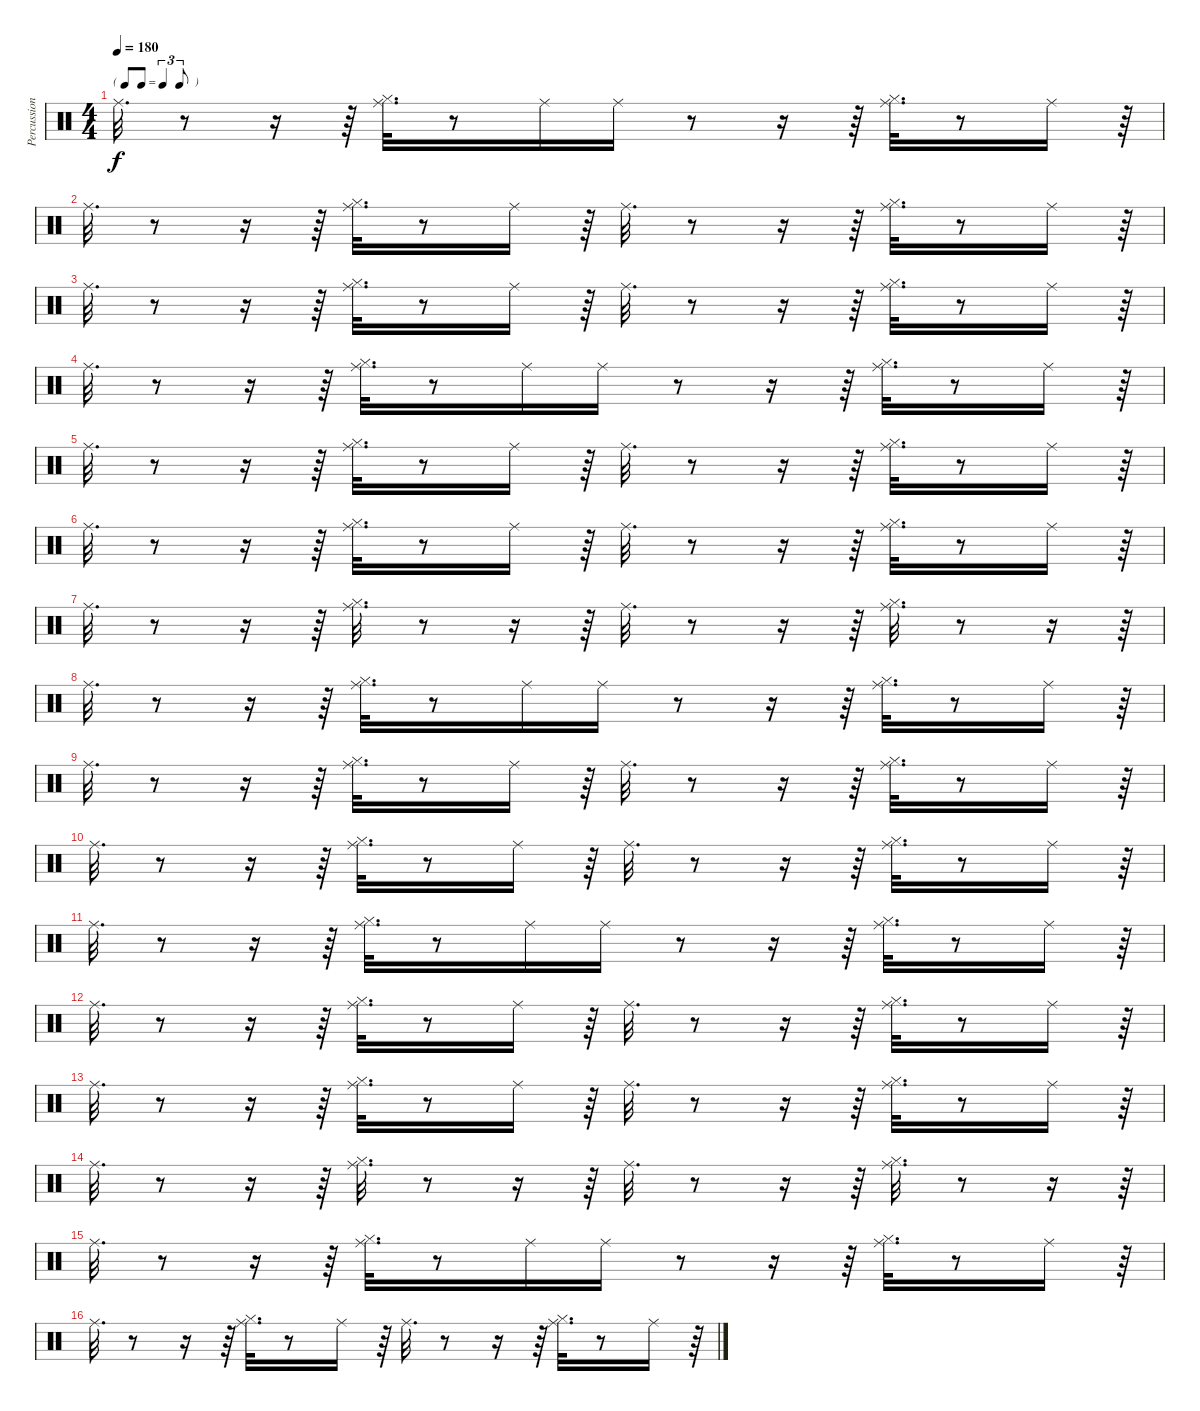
\track ("Percussions" "Percussion") {instrument percussion}
\staff {score}
\articulation defaults
\ts (4 4)
\tf triplet8th
\tempo 180
\clef neutral
\ks c "Ride (middle)".32{d dy f}
r.8 r.16 r.64 ("Hi-Hat (closed)" "Ride (middle)").32{d} r.8 "Ride (middle)".16 "Ride (middle)".16 r.8 r.16 r.64 ("Hi-Hat (closed)" "Ride (middle)").32{d} r.8 "Ride (middle)".16 r.64 |
"Ride (middle)".32{d} r.8 r.16 r.64 ("Hi-Hat (closed)" "Ride (middle)").32{d} r.8 "Ride (middle)".16 r.64 "Ride (middle)".32{d} r.8 r.16 r.64 ("Hi-Hat (closed)" "Ride (middle)").32{d} r.8 "Ride (middle)".16 r.64 |
"Ride (middle)".32{d} r.8 r.16 r.64 ("Hi-Hat (closed)" "Ride (middle)").32{d} r.8 "Ride (middle)".16 r.64 "Ride (middle)".32{d} r.8 r.16 r.64 ("Hi-Hat (closed)" "Ride (middle)").32{d} r.8 "Ride (middle)".16 r.64 |
"Ride (middle)".32{d} r.8 r.16 r.64 ("Hi-Hat (closed)" "Ride (middle)").32{d} r.8 "Ride (middle)".16 "Ride (middle)".16 r.8 r.16 r.64 ("Hi-Hat (closed)" "Ride (middle)").32{d} r.8 "Ride (middle)".16 r.64 |
"Ride (middle)".32{d} r.8 r.16 r.64 ("Hi-Hat (closed)" "Ride (middle)").32{d} r.8 "Ride (middle)".16 r.64 "Ride (middle)".32{d} r.8 r.16 r.64 ("Hi-Hat (closed)" "Ride (middle)").32{d} r.8 "Ride (middle)".16 r.64 |
"Ride (middle)".32{d} r.8 r.16 r.64 ("Hi-Hat (closed)" "Ride (middle)").32{d} r.8 "Ride (middle)".16 r.64 "Ride (middle)".32{d} r.8 r.16 r.64 ("Hi-Hat (closed)" "Ride (middle)").32{d} r.8 "Ride (middle)".16 r.64 |
"Ride (middle)".32{d} r.8 r.16 r.64 ("Hi-Hat (closed)" "Ride (middle)").32{d} r.8 r.16 r.64 "Ride (middle)".32{d} r.8 r.16 r.64 ("Hi-Hat (closed)" "Ride (middle)").32{d} r.8 r.16 r.64 |
"Ride (middle)".32{d} r.8 r.16 r.64 ("Hi-Hat (closed)" "Ride (middle)").32{d} r.8 "Ride (middle)".16 "Ride (middle)".16 r.8 r.16 r.64 ("Hi-Hat (closed)" "Ride (middle)").32{d} r.8 "Ride (middle)".16 r.64 |
"Ride (middle)".32{d} r.8 r.16 r.64 ("Hi-Hat (closed)" "Ride (middle)").32{d} r.8 "Ride (middle)".16 r.64 "Ride (middle)".32{d} r.8 r.16 r.64 ("Hi-Hat (closed)" "Ride (middle)").32{d} r.8 "Ride (middle)".16 r.64 |
"Ride (middle)".32{d} r.8 r.16 r.64 ("Hi-Hat (closed)" "Ride (middle)").32{d} r.8 "Ride (middle)".16 r.64 "Ride (middle)".32{d} r.8 r.16 r.64 ("Hi-Hat (closed)" "Ride (middle)").32{d} r.8 "Ride (middle)".16 r.64 |
"Ride (middle)".32{d} r.8 r.16 r.64 ("Hi-Hat (closed)" "Ride (middle)").32{d} r.8 "Ride (middle)".16 "Ride (middle)".16 r.8 r.16 r.64 ("Hi-Hat (closed)" "Ride (middle)").32{d} r.8 "Ride (middle)".16 r.64 |
"Ride (middle)".32{d} r.8 r.16 r.64 ("Hi-Hat (closed)" "Ride (middle)").32{d} r.8 "Ride (middle)".16 r.64 "Ride (middle)".32{d} r.8 r.16 r.64 ("Hi-Hat (closed)" "Ride (middle)").32{d} r.8 "Ride (middle)".16 r.64 |
"Ride (middle)".32{d} r.8 r.16 r.64 ("Hi-Hat (closed)" "Ride (middle)").32{d} r.8 "Ride (middle)".16 r.64 "Ride (middle)".32{d} r.8 r.16 r.64 ("Hi-Hat (closed)" "Ride (middle)").32{d} r.8 "Ride (middle)".16 r.64 |
"Ride (middle)".32{d} r.8 r.16 r.64 ("Hi-Hat (closed)" "Ride (middle)").32{d} r.8 r.16 r.64 "Ride (middle)".32{d} r.8 r.16 r.64 ("Hi-Hat (closed)" "Ride (middle)").32{d} r.8 r.16 r.64 |
"Ride (middle)".32{d} r.8 r.16 r.64 ("Hi-Hat (closed)" "Ride (middle)").32{d} r.8 "Ride (middle)".16 "Ride (middle)".16 r.8 r.16 r.64 ("Hi-Hat (closed)" "Ride (middle)").32{d} r.8 "Ride (middle)".16 r.64 |
"Ride (middle)".32{d} r.8 r.16 r.64 ("Hi-Hat (closed)" "Ride (middle)").32{d} r.8 "Ride (middle)".16 r.64 "Ride (middle)".32{d} r.8 r.16 r.64 ("Hi-Hat (closed)" "Ride (middle)").32{d} r.8 "Ride (middle)".16 r.64
